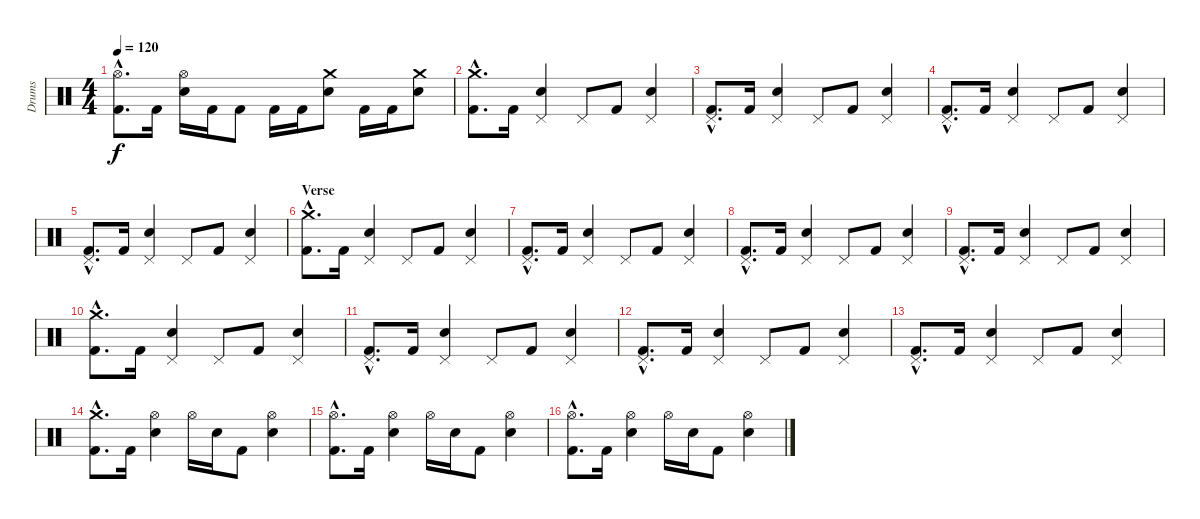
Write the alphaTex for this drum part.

\track ("Drums" "Drums") {instrument percussion}
\staff {score}
\articulation defaults
\ts (4 4)
\tempo 120
\clef neutral
\ks c
("Hi-Hat (open)"{hac} "Kick (hit) 2"{hac}).8{d dy f} "Kick (hit) 2".16 ("Hi-Hat (open)" "Electric Snare (hit)").16 "Kick (hit) 2".16 "Kick (hit) 2".8 "Kick (hit) 2".16 "Kick (hit) 2".16 ("Crash medium (hit)" "Electric Snare (hit)").8 "Kick (hit) 2".16 "Kick (hit) 2".16 ("Crash medium (hit)" "Electric Snare (hit)").8 |
("Crash medium (hit)"{hac} "Kick (hit) 2"{hac}).8{d} "Kick (hit) 2".16 ("Pedal Hi-Hat (hit)" "Electric Snare (hit)").4 "Pedal Hi-Hat (hit)".8 "Kick (hit) 2".8 ("Pedal Hi-Hat (hit)" "Electric Snare (hit)").4 |
("Pedal Hi-Hat (hit)"{hac} "Kick (hit) 2"{hac}).8{d} "Kick (hit) 2".16 ("Pedal Hi-Hat (hit)" "Electric Snare (hit)").4 "Pedal Hi-Hat (hit)".8 "Kick (hit) 2".8 ("Pedal Hi-Hat (hit)" "Electric Snare (hit)").4 |
("Pedal Hi-Hat (hit)"{hac} "Kick (hit) 2"{hac}).8{d} "Kick (hit) 2".16 ("Pedal Hi-Hat (hit)" "Electric Snare (hit)").4 "Pedal Hi-Hat (hit)".8 "Kick (hit) 2".8 ("Pedal Hi-Hat (hit)" "Electric Snare (hit)").4 |
("Pedal Hi-Hat (hit)"{hac} "Kick (hit) 2"{hac}).8{d} "Kick (hit) 2".16 ("Pedal Hi-Hat (hit)" "Electric Snare (hit)").4 "Pedal Hi-Hat (hit)".8 "Kick (hit) 2".8 ("Pedal Hi-Hat (hit)" "Electric Snare (hit)").4 |
\section ("" "Verse")
("Crash medium (hit)"{hac} "Kick (hit) 2"{hac}).8{d} "Kick (hit) 2".16 ("Pedal Hi-Hat (hit)" "Electric Snare (hit)").4 "Pedal Hi-Hat (hit)".8 "Kick (hit) 2".8 ("Pedal Hi-Hat (hit)" "Electric Snare (hit)").4 |
("Pedal Hi-Hat (hit)"{hac} "Kick (hit) 2"{hac}).8{d} "Kick (hit) 2".16 ("Pedal Hi-Hat (hit)" "Electric Snare (hit)").4 "Pedal Hi-Hat (hit)".8 "Kick (hit) 2".8 ("Pedal Hi-Hat (hit)" "Electric Snare (hit)").4 |
("Pedal Hi-Hat (hit)"{hac} "Kick (hit) 2"{hac}).8{d} "Kick (hit) 2".16 ("Pedal Hi-Hat (hit)" "Electric Snare (hit)").4 "Pedal Hi-Hat (hit)".8 "Kick (hit) 2".8 ("Pedal Hi-Hat (hit)" "Electric Snare (hit)").4 |
("Pedal Hi-Hat (hit)"{hac} "Kick (hit) 2"{hac}).8{d} "Kick (hit) 2".16 ("Pedal Hi-Hat (hit)" "Electric Snare (hit)").4 "Pedal Hi-Hat (hit)".8 "Kick (hit) 2".8 ("Pedal Hi-Hat (hit)" "Electric Snare (hit)").4 |
("Crash medium (hit)"{hac} "Kick (hit) 2"{hac}).8{d} "Kick (hit) 2".16 ("Pedal Hi-Hat (hit)" "Electric Snare (hit)").4 "Pedal Hi-Hat (hit)".8 "Kick (hit) 2".8 ("Pedal Hi-Hat (hit)" "Electric Snare (hit)").4 |
("Pedal Hi-Hat (hit)"{hac} "Kick (hit) 2"{hac}).8{d} "Kick (hit) 2".16 ("Pedal Hi-Hat (hit)" "Electric Snare (hit)").4 "Pedal Hi-Hat (hit)".8 "Kick (hit) 2".8 ("Pedal Hi-Hat (hit)" "Electric Snare (hit)").4 |
("Pedal Hi-Hat (hit)"{hac} "Kick (hit) 2"{hac}).8{d} "Kick (hit) 2".16 ("Pedal Hi-Hat (hit)" "Electric Snare (hit)").4 "Pedal Hi-Hat (hit)".8 "Kick (hit) 2".8 ("Pedal Hi-Hat (hit)" "Electric Snare (hit)").4 |
("Pedal Hi-Hat (hit)"{hac} "Kick (hit) 2"{hac}).8{d} "Kick (hit) 2".16 ("Pedal Hi-Hat (hit)" "Electric Snare (hit)").4 "Pedal Hi-Hat (hit)".8 "Kick (hit) 2".8 ("Pedal Hi-Hat (hit)" "Electric Snare (hit)").4 |
("Crash medium (hit)"{hac} "Kick (hit) 2"{hac}).8{d} "Kick (hit) 2".16 ("Hi-Hat (open)" "Electric Snare (hit)").4 "Hi-Hat (open)".16 "Electric Snare (hit)".16 "Kick (hit) 2".8 ("Hi-Hat (open)" "Electric Snare (hit)").4 |
("Hi-Hat (open)"{hac} "Kick (hit) 2"{hac}).8{d} "Kick (hit) 2".16 ("Hi-Hat (open)" "Electric Snare (hit)").4 "Hi-Hat (open)".16 "Electric Snare (hit)".16 "Kick (hit) 2".8 ("Hi-Hat (open)" "Electric Snare (hit)").4 |
("Hi-Hat (open)"{hac} "Kick (hit) 2"{hac}).8{d} "Kick (hit) 2".16 ("Hi-Hat (open)" "Electric Snare (hit)").4 "Hi-Hat (open)".16 "Electric Snare (hit)".16 "Kick (hit) 2".8 ("Hi-Hat (open)" "Electric Snare (hit)").4
